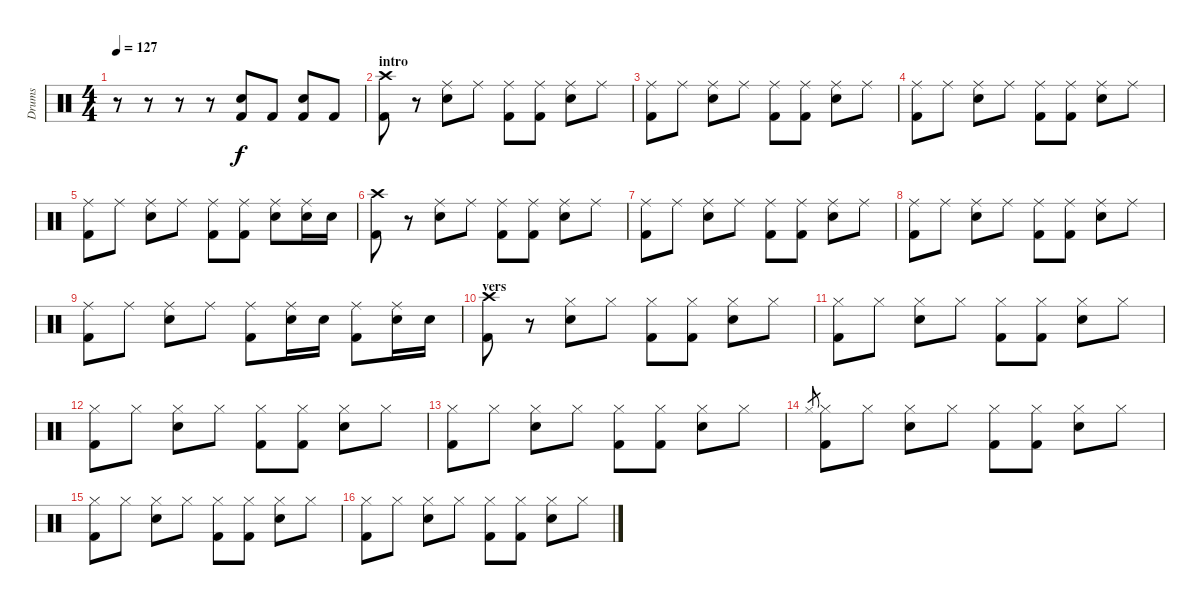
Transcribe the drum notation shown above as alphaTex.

\track ("Drums" "Drums") {instrument percussion}
\staff {score}
\articulation defaults
\ts (4 4)
\tempo 127
\clef neutral
\ks c
r.8{dy f} r.8 r.8 r.8 ("Snare (hit) 2" "Kick (hit) 2").8 "Kick (hit) 2".8 ("Snare (hit) 2" "Kick (hit) 2").8 "Kick (hit) 2".8 |
\section ("" "intro")
("Crash high (hit)" "Kick (hit) 2").8 r.8 ("Ride (middle)" "Snare (hit) 2").8 "Ride (middle)".8 ("Ride (middle)" "Kick (hit) 2").8 ("Ride (middle)" "Kick (hit) 2").8 ("Ride (middle)" "Snare (hit) 2").8 "Ride (middle)".8 |
("Ride (middle)" "Kick (hit) 2").8 "Ride (middle)".8 ("Ride (middle)" "Snare (hit) 2").8 "Ride (middle)".8 ("Ride (middle)" "Kick (hit) 2").8 ("Ride (middle)" "Kick (hit) 2").8 ("Ride (middle)" "Snare (hit) 2").8 "Ride (middle)".8 |
("Ride (middle)" "Kick (hit) 2").8 "Ride (middle)".8 ("Ride (middle)" "Snare (hit) 2").8 "Ride (middle)".8 ("Ride (middle)" "Kick (hit) 2").8 ("Ride (middle)" "Kick (hit) 2").8 ("Ride (middle)" "Snare (hit) 2").8 "Ride (middle)".8 |
("Ride (middle)" "Kick (hit) 2").8 "Ride (middle)".8 ("Ride (middle)" "Snare (hit) 2").8 "Ride (middle)".8 ("Ride (middle)" "Kick (hit) 2").8 ("Ride (middle)" "Kick (hit) 2").8 ("Ride (middle)" "Snare (hit) 2").8 ("Ride (middle)" "Snare (hit) 2").16 "Snare (hit) 2".16 |
("Crash high (hit)" "Kick (hit) 2").8 r.8 ("Ride (middle)" "Snare (hit) 2").8 "Ride (middle)".8 ("Ride (middle)" "Kick (hit) 2").8 ("Ride (middle)" "Kick (hit) 2").8 ("Ride (middle)" "Snare (hit) 2").8 "Ride (middle)".8 |
("Ride (middle)" "Kick (hit) 2").8 "Ride (middle)".8 ("Ride (middle)" "Snare (hit) 2").8 "Ride (middle)".8 ("Ride (middle)" "Kick (hit) 2").8 ("Ride (middle)" "Kick (hit) 2").8 ("Ride (middle)" "Snare (hit) 2").8 "Ride (middle)".8 |
("Ride (middle)" "Kick (hit) 2").8 "Ride (middle)".8 ("Ride (middle)" "Snare (hit) 2").8 "Ride (middle)".8 ("Ride (middle)" "Kick (hit) 2").8 ("Ride (middle)" "Kick (hit) 2").8 ("Ride (middle)" "Snare (hit) 2").8 "Ride (middle)".8 |
("Ride (middle)" "Kick (hit) 2").8 "Ride (middle)".8 ("Ride (middle)" "Snare (hit) 2").8 "Ride (middle)".8 ("Ride (middle)" "Kick (hit) 2").8 ("Ride (middle)" "Snare (hit) 2").16 "Snare (hit) 2".16 ("Ride (middle)" "Kick (hit) 2").8 ("Ride (middle)" "Snare (hit) 2").16 "Snare (hit) 2".16 |
\section ("" "vers")
("Crash high (hit)" "Kick (hit) 2").8 r.8 ("Hi-Hat (closed)" "Snare (hit) 2").8 "Hi-Hat (closed)".8 ("Hi-Hat (closed)" "Kick (hit) 2").8 ("Hi-Hat (closed)" "Kick (hit) 2").8 ("Hi-Hat (closed)" "Snare (hit) 2").8 "Hi-Hat (closed)".8 |
("Hi-Hat (closed)" "Kick (hit) 2").8 "Hi-Hat (closed)".8 ("Hi-Hat (closed)" "Snare (hit) 2").8 "Hi-Hat (closed)".8 ("Hi-Hat (closed)" "Kick (hit) 2").8 ("Hi-Hat (closed)" "Kick (hit) 2").8 ("Hi-Hat (closed)" "Snare (hit) 2").8 "Hi-Hat (closed)".8 |
("Hi-Hat (closed)" "Kick (hit) 2").8 "Hi-Hat (closed)".8 ("Hi-Hat (closed)" "Snare (hit) 2").8 "Hi-Hat (closed)".8 ("Hi-Hat (closed)" "Kick (hit) 2").8 ("Hi-Hat (closed)" "Kick (hit) 2").8 ("Hi-Hat (closed)" "Snare (hit) 2").8 "Hi-Hat (closed)".8 |
("Hi-Hat (closed)" "Kick (hit) 2").8 "Hi-Hat (closed)".8 ("Hi-Hat (closed)" "Snare (hit) 2").8 "Hi-Hat (closed)".8 ("Hi-Hat (closed)" "Kick (hit) 2").8 ("Hi-Hat (closed)" "Kick (hit) 2").8 ("Hi-Hat (closed)" "Snare (hit) 2").8 "Hi-Hat (closed)".8 |
"Hi-Hat (closed)".8{gr} ("Hi-Hat (closed)" "Kick (hit) 2").8 "Hi-Hat (closed)".8 ("Hi-Hat (closed)" "Snare (hit) 2").8 "Hi-Hat (closed)".8 ("Hi-Hat (closed)" "Kick (hit) 2").8 ("Hi-Hat (closed)" "Kick (hit) 2").8 ("Hi-Hat (closed)" "Snare (hit) 2").8 "Hi-Hat (closed)".8 |
("Hi-Hat (closed)" "Kick (hit) 2").8 "Hi-Hat (closed)".8 ("Hi-Hat (closed)" "Snare (hit) 2").8 "Hi-Hat (closed)".8 ("Hi-Hat (closed)" "Kick (hit) 2").8 ("Hi-Hat (closed)" "Kick (hit) 2").8 ("Hi-Hat (closed)" "Snare (hit) 2").8 "Hi-Hat (closed)".8 |
("Hi-Hat (closed)" "Kick (hit) 2").8 "Hi-Hat (closed)".8 ("Hi-Hat (closed)" "Snare (hit) 2").8 "Hi-Hat (closed)".8 ("Hi-Hat (closed)" "Kick (hit) 2").8 ("Hi-Hat (closed)" "Kick (hit) 2").8 ("Hi-Hat (closed)" "Snare (hit) 2").8 "Hi-Hat (closed)".8
